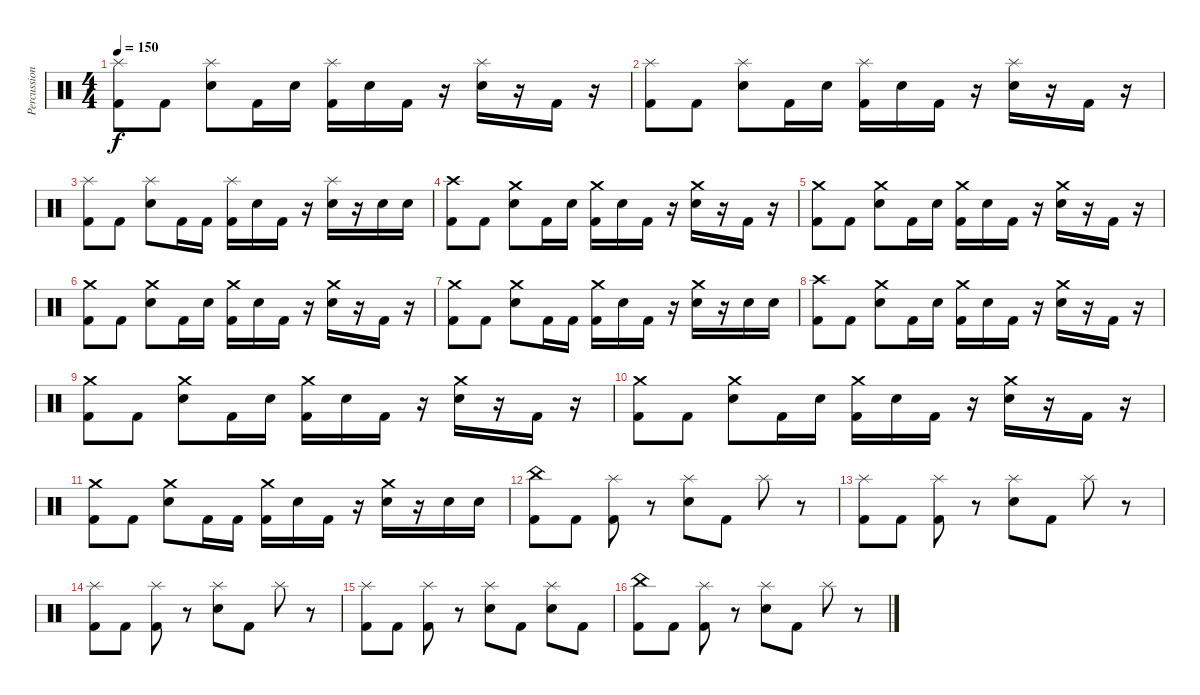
\track ("Percussion" "Percussion") {instrument percussion}
\staff {score}
\articulation defaults
\ts (4 4)
\tempo 150
\clef neutral
\ks c
("Kick (hit) 2" "Splash (hit)").8{dy f} "Kick (hit) 2".8 ("Electric Snare (hit)" "Splash (hit)").8 "Kick (hit) 2".16 "Electric Snare (hit)".16 ("Kick (hit) 2" "Splash (hit)").16 "Electric Snare (hit)".16 "Kick (hit) 2".16 r.16 ("Electric Snare (hit)" "Splash (hit)").16 r.16 "Kick (hit) 2".16 r.16 |
("Kick (hit) 2" "Splash (hit)").8 "Kick (hit) 2".8 ("Electric Snare (hit)" "Splash (hit)").8 "Kick (hit) 2".16 "Electric Snare (hit)".16 ("Kick (hit) 2" "Splash (hit)").16 "Electric Snare (hit)".16 "Kick (hit) 2".16 r.16 ("Electric Snare (hit)" "Splash (hit)").16 r.16 "Kick (hit) 2".16 r.16 |
("Kick (hit) 2" "Splash (hit)").8 "Kick (hit) 2".8 ("Electric Snare (hit)" "Splash (hit)").8 "Kick (hit) 2".16 "Kick (hit) 2".16 ("Kick (hit) 2" "Splash (hit)").16 "Electric Snare (hit)".16 "Kick (hit) 2".16 r.16 ("Electric Snare (hit)" "Splash (hit)").16 r.16 "Electric Snare (hit)".16 "Electric Snare (hit)".16 |
("Kick (hit) 2" "Crash high (hit)").8 "Kick (hit) 2".8 ("Electric Snare (hit)" "Crash medium (hit)").8 "Kick (hit) 2".16 "Electric Snare (hit)".16 ("Kick (hit) 2" "Crash medium (hit)").16 "Electric Snare (hit)".16 "Kick (hit) 2".16 r.16 ("Electric Snare (hit)" "Crash medium (hit)").16 r.16 "Kick (hit) 2".16 r.16 |
("Kick (hit) 2" "Crash medium (hit)").8 "Kick (hit) 2".8 ("Electric Snare (hit)" "Crash medium (hit)").8 "Kick (hit) 2".16 "Electric Snare (hit)".16 ("Kick (hit) 2" "Crash medium (hit)").16 "Electric Snare (hit)".16 "Kick (hit) 2".16 r.16 ("Electric Snare (hit)" "Crash medium (hit)").16 r.16 "Kick (hit) 2".16 r.16 |
("Kick (hit) 2" "Crash medium (hit)").8 "Kick (hit) 2".8 ("Electric Snare (hit)" "Crash medium (hit)").8 "Kick (hit) 2".16 "Electric Snare (hit)".16 ("Kick (hit) 2" "Crash medium (hit)").16 "Electric Snare (hit)".16 "Kick (hit) 2".16 r.16 ("Electric Snare (hit)" "Crash medium (hit)").16 r.16 "Kick (hit) 2".16 r.16 |
("Kick (hit) 2" "Crash medium (hit)").8 "Kick (hit) 2".8 ("Electric Snare (hit)" "Crash medium (hit)").8 "Kick (hit) 2".16 "Kick (hit) 2".16 ("Kick (hit) 2" "Crash medium (hit)").16 "Electric Snare (hit)".16 "Kick (hit) 2".16 r.16 ("Electric Snare (hit)" "Crash medium (hit)").16 r.16 "Electric Snare (hit)".16 "Electric Snare (hit)".16 |
("Kick (hit) 2" "Crash high (hit)").8 "Kick (hit) 2".8 ("Electric Snare (hit)" "Crash medium (hit)").8 "Kick (hit) 2".16 "Electric Snare (hit)".16 ("Kick (hit) 2" "Crash medium (hit)").16 "Electric Snare (hit)".16 "Kick (hit) 2".16 r.16 ("Electric Snare (hit)" "Crash medium (hit)").16 r.16 "Kick (hit) 2".16 r.16 |
("Kick (hit) 2" "Crash medium (hit)").8 "Kick (hit) 2".8 ("Electric Snare (hit)" "Crash medium (hit)").8 "Kick (hit) 2".16 "Electric Snare (hit)".16 ("Kick (hit) 2" "Crash medium (hit)").16 "Electric Snare (hit)".16 "Kick (hit) 2".16 r.16 ("Electric Snare (hit)" "Crash medium (hit)").16 r.16 "Kick (hit) 2".16 r.16 |
("Kick (hit) 2" "Crash medium (hit)").8 "Kick (hit) 2".8 ("Electric Snare (hit)" "Crash medium (hit)").8 "Kick (hit) 2".16 "Electric Snare (hit)".16 ("Kick (hit) 2" "Crash medium (hit)").16 "Electric Snare (hit)".16 "Kick (hit) 2".16 r.16 ("Electric Snare (hit)" "Crash medium (hit)").16 r.16 "Kick (hit) 2".16 r.16 |
("Kick (hit) 2" "Crash medium (hit)").8 "Kick (hit) 2".8 ("Electric Snare (hit)" "Crash medium (hit)").8 "Kick (hit) 2".16 "Kick (hit) 2".16 ("Kick (hit) 2" "Crash medium (hit)").16 "Electric Snare (hit)".16 "Kick (hit) 2".16 r.16 ("Electric Snare (hit)" "Crash medium (hit)").16 r.16 "Electric Snare (hit)".16 "Electric Snare (hit)".16 |
("China (hit)" "Kick (hit) 2").8 "Kick (hit) 2".8 ("Splash (hit)" "Kick (hit) 2").8 r.8 ("Splash (hit)" "Electric Snare (hit)").8 "Kick (hit) 2".8 "Splash (hit)".8 r.8 |
("Splash (hit)" "Kick (hit) 2").8 "Kick (hit) 2".8 ("Splash (hit)" "Kick (hit) 2").8 r.8 ("Splash (hit)" "Electric Snare (hit)").8 "Kick (hit) 2".8 "Splash (hit)".8 r.8 |
("Splash (hit)" "Kick (hit) 2").8 "Kick (hit) 2".8 ("Splash (hit)" "Kick (hit) 2").8 r.8 ("Splash (hit)" "Electric Snare (hit)").8 "Kick (hit) 2".8 "Splash (hit)".8 r.8 |
("Splash (hit)" "Kick (hit) 2").8 "Kick (hit) 2".8 ("Splash (hit)" "Kick (hit) 2").8 r.8 ("Splash (hit)" "Electric Snare (hit)").8 "Kick (hit) 2".8 ("Splash (hit)" "Electric Snare (hit)").8 "Kick (hit) 2".8 |
("China (hit)" "Kick (hit) 2").8 "Kick (hit) 2".8 ("Splash (hit)" "Kick (hit) 2").8 r.8 ("Splash (hit)" "Electric Snare (hit)").8 "Kick (hit) 2".8 "Splash (hit)".8 r.8
